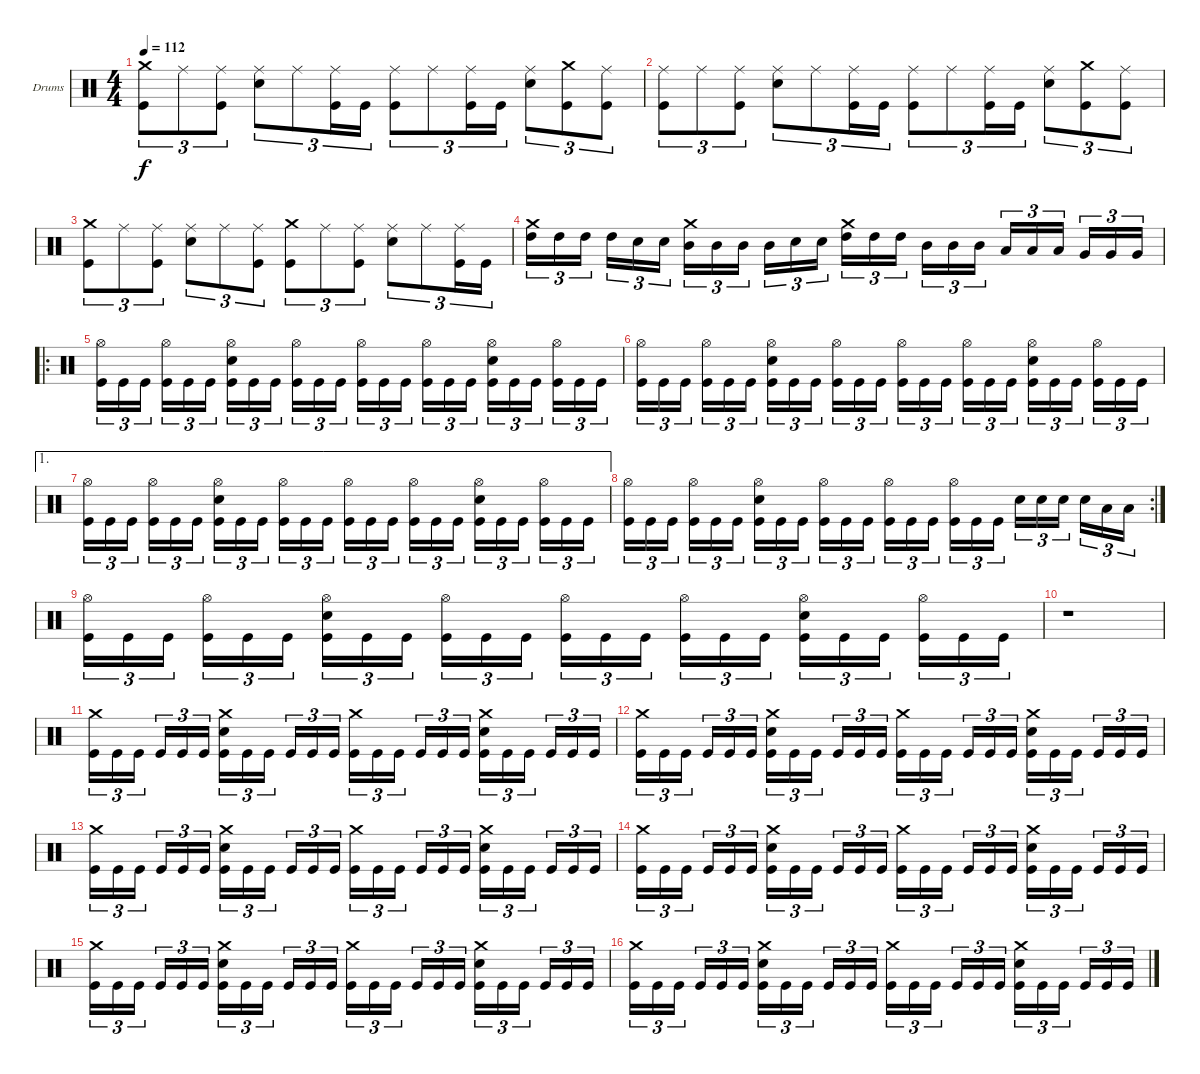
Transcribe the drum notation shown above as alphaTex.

\bracketExtendMode groupsimilarinstruments
\firstSystemTrackNameOrientation horizontal
\otherSystemsTrackNameOrientation horizontal
\track ("Drumkit" "Drums") {instrument percussion}
\staff {score}
\articulation defaults
\ts (4 4)
\tempo 112
\clef neutral
\ks c
("Crash medium (hit)" "Kick (hit)").8{tu (3 2) dy f} "Ride (middle)".8{tu (3 2)} ("Ride (middle)" "Kick (hit)").8{tu (3 2)} ("Ride (middle)" "Snare (hit) 2").8{tu (3 2)} "Ride (middle)".8{tu (3 2)} ("Ride (middle)" "Kick (hit)").16{tu (3 2)} "Kick (hit)".16{tu (3 2)} ("Ride (middle)" "Kick (hit)").8{tu (3 2)} "Ride (middle)".8{tu (3 2)} ("Ride (middle)" "Kick (hit)").16{tu (3 2)} "Kick (hit)".16{tu (3 2)} ("Ride (middle)" "Snare (hit) 2").8{tu (3 2)} ("Crash medium (hit)" "Kick (hit)").8{tu (3 2)} ("Ride (middle)" "Kick (hit)").8{tu (3 2)} |
("Ride (middle)" "Kick (hit)").8{tu (3 2)} "Ride (middle)".8{tu (3 2)} ("Ride (middle)" "Kick (hit)").8{tu (3 2)} ("Ride (middle)" "Snare (hit) 2").8{tu (3 2)} "Ride (middle)".8{tu (3 2)} ("Ride (middle)" "Kick (hit)").16{tu (3 2)} "Kick (hit)".16{tu (3 2)} ("Ride (middle)" "Kick (hit)").8{tu (3 2)} "Ride (middle)".8{tu (3 2)} ("Ride (middle)" "Kick (hit)").16{tu (3 2)} "Kick (hit)".16{tu (3 2)} ("Ride (middle)" "Snare (hit) 2").8{tu (3 2)} ("Crash medium (hit)" "Kick (hit)").8{tu (3 2)} ("Ride (middle)" "Kick (hit)").8{tu (3 2)} |
("Crash medium (hit)" "Kick (hit)").8{tu (3 2)} "Ride (middle)".8{tu (3 2)} ("Ride (middle)" "Kick (hit)").8{tu (3 2)} ("Ride (middle)" "Snare (hit) 2").8{tu (3 2)} "Ride (middle)".8{tu (3 2)} ("Ride (middle)" "Kick (hit)").8{tu (3 2)} ("Crash medium (hit)" "Kick (hit)").8{tu (3 2)} "Ride (middle)".8{tu (3 2)} ("Ride (middle)" "Kick (hit)").8{tu (3 2)} ("Ride (middle)" "Snare (hit) 2").8{tu (3 2)} "Ride (middle)".8{tu (3 2)} ("Ride (middle)" "Kick (hit)").16{tu (3 2)} "Kick (hit)".16{tu (3 2)} |
("High Tom (hit)" "Crash medium (hit)").16{tu (3 2)} "High Tom (hit)".16{tu (3 2)} "High Tom (hit)".16{tu (3 2)} "High Tom (hit)".16{tu (3 2)} "Snare (hit) 2".16{tu (3 2)} "Snare (hit) 2".16{tu (3 2)} ("Mid Tom (hit)" "Crash medium (hit)").16{tu (3 2)} "Mid Tom (hit)".16{tu (3 2)} "Mid Tom (hit)".16{tu (3 2)} "Mid Tom (hit)".16{tu (3 2)} "Snare (hit) 2".16{tu (3 2)} "Snare (hit) 2".16{tu (3 2)} ("High Tom (hit)" "Crash medium (hit)").16{tu (3 2)} "High Tom (hit)".16{tu (3 2)} "High Tom (hit)".16{tu (3 2)} "Mid Tom (hit)".16{tu (3 2)} "Mid Tom (hit)".16{tu (3 2)} "Mid Tom (hit)".16{tu (3 2)} "Low Tom (hit)".16{tu (3 2)} "Low Tom (hit)".16{tu (3 2)} "Low Tom (hit)".16{tu (3 2)} "Very Low Tom (hit)".16{tu (3 2)} "Very Low Tom (hit)".16{tu (3 2)} "Very Low Tom (hit)".16{tu (3 2)} |
\ro
("Hi-Hat (open)" "Kick (hit)").16{tu (3 2)} "Kick (hit)".16{tu (3 2)} "Kick (hit)".16{tu (3 2)} ("Hi-Hat (open)" "Kick (hit)").16{tu (3 2)} "Kick (hit)".16{tu (3 2)} "Kick (hit)".16{tu (3 2)} ("Hi-Hat (open)" "Snare (hit) 2" "Kick (hit)").16{tu (3 2)} "Kick (hit)".16{tu (3 2)} "Kick (hit)".16{tu (3 2)} ("Hi-Hat (open)" "Kick (hit)").16{tu (3 2)} "Kick (hit)".16{tu (3 2)} "Kick (hit)".16{tu (3 2)} ("Hi-Hat (open)" "Kick (hit)").16{tu (3 2)} "Kick (hit)".16{tu (3 2)} "Kick (hit)".16{tu (3 2)} ("Hi-Hat (open)" "Kick (hit)").16{tu (3 2)} "Kick (hit)".16{tu (3 2)} "Kick (hit)".16{tu (3 2)} ("Hi-Hat (open)" "Snare (hit) 2" "Kick (hit)").16{tu (3 2)} "Kick (hit)".16{tu (3 2)} "Kick (hit)".16{tu (3 2)} ("Hi-Hat (open)" "Kick (hit)").16{tu (3 2)} "Kick (hit)".16{tu (3 2)} "Kick (hit)".16{tu (3 2)} |
("Hi-Hat (open)" "Kick (hit)").16{tu (3 2)} "Kick (hit)".16{tu (3 2)} "Kick (hit)".16{tu (3 2)} ("Hi-Hat (open)" "Kick (hit)").16{tu (3 2)} "Kick (hit)".16{tu (3 2)} "Kick (hit)".16{tu (3 2)} ("Hi-Hat (open)" "Snare (hit) 2" "Kick (hit)").16{tu (3 2)} "Kick (hit)".16{tu (3 2)} "Kick (hit)".16{tu (3 2)} ("Hi-Hat (open)" "Kick (hit)").16{tu (3 2)} "Kick (hit)".16{tu (3 2)} "Kick (hit)".16{tu (3 2)} ("Hi-Hat (open)" "Kick (hit)").16{tu (3 2)} "Kick (hit)".16{tu (3 2)} "Kick (hit)".16{tu (3 2)} ("Hi-Hat (open)" "Kick (hit)").16{tu (3 2)} "Kick (hit)".16{tu (3 2)} "Kick (hit)".16{tu (3 2)} ("Hi-Hat (open)" "Snare (hit) 2" "Kick (hit)").16{tu (3 2)} "Kick (hit)".16{tu (3 2)} "Kick (hit)".16{tu (3 2)} ("Hi-Hat (open)" "Kick (hit)").16{tu (3 2)} "Kick (hit)".16{tu (3 2)} "Kick (hit)".16{tu (3 2)} |
\ae 1
("Hi-Hat (open)" "Kick (hit)").16{tu (3 2)} "Kick (hit)".16{tu (3 2)} "Kick (hit)".16{tu (3 2)} ("Hi-Hat (open)" "Kick (hit)").16{tu (3 2)} "Kick (hit)".16{tu (3 2)} "Kick (hit)".16{tu (3 2)} ("Hi-Hat (open)" "Snare (hit) 2" "Kick (hit)").16{tu (3 2)} "Kick (hit)".16{tu (3 2)} "Kick (hit)".16{tu (3 2)} ("Hi-Hat (open)" "Kick (hit)").16{tu (3 2)} "Kick (hit)".16{tu (3 2)} "Kick (hit)".16{tu (3 2)} ("Hi-Hat (open)" "Kick (hit)").16{tu (3 2)} "Kick (hit)".16{tu (3 2)} "Kick (hit)".16{tu (3 2)} ("Hi-Hat (open)" "Kick (hit)").16{tu (3 2)} "Kick (hit)".16{tu (3 2)} "Kick (hit)".16{tu (3 2)} ("Hi-Hat (open)" "Snare (hit) 2" "Kick (hit)").16{tu (3 2)} "Kick (hit)".16{tu (3 2)} "Kick (hit)".16{tu (3 2)} ("Hi-Hat (open)" "Kick (hit)").16{tu (3 2)} "Kick (hit)".16{tu (3 2)} "Kick (hit)".16{tu (3 2)} |
\rc 2
("Hi-Hat (open)" "Kick (hit)").16{tu (3 2)} "Kick (hit)".16{tu (3 2)} "Kick (hit)".16{tu (3 2)} ("Hi-Hat (open)" "Kick (hit)").16{tu (3 2)} "Kick (hit)".16{tu (3 2)} "Kick (hit)".16{tu (3 2)} ("Hi-Hat (open)" "Snare (hit) 2" "Kick (hit)").16{tu (3 2)} "Kick (hit)".16{tu (3 2)} "Kick (hit)".16{tu (3 2)} ("Hi-Hat (open)" "Kick (hit)").16{tu (3 2)} "Kick (hit)".16{tu (3 2)} "Kick (hit)".16{tu (3 2)} ("Hi-Hat (open)" "Kick (hit)").16{tu (3 2)} "Kick (hit)".16{tu (3 2)} "Kick (hit)".16{tu (3 2)} ("Hi-Hat (open)" "Kick (hit)").16{tu (3 2)} "Kick (hit)".16{tu (3 2)} "Kick (hit)".16{tu (3 2)} "Snare (hit) 2".16{tu (3 2)} "Snare (hit) 2".16{tu (3 2)} "Snare (hit) 2".16{tu (3 2)} "Snare (hit) 2".16{tu (3 2)} "Low Tom (hit)".16{tu (3 2)} "Low Tom (hit)".16{tu (3 2)} |
("Hi-Hat (open)" "Kick (hit)").16{tu (3 2)} "Kick (hit)".16{tu (3 2)} "Kick (hit)".16{tu (3 2)} ("Hi-Hat (open)" "Kick (hit)").16{tu (3 2)} "Kick (hit)".16{tu (3 2)} "Kick (hit)".16{tu (3 2)} ("Hi-Hat (open)" "Snare (hit) 2" "Kick (hit)").16{tu (3 2)} "Kick (hit)".16{tu (3 2)} "Kick (hit)".16{tu (3 2)} ("Hi-Hat (open)" "Kick (hit)").16{tu (3 2)} "Kick (hit)".16{tu (3 2)} "Kick (hit)".16{tu (3 2)} ("Hi-Hat (open)" "Kick (hit)").16{tu (3 2)} "Kick (hit)".16{tu (3 2)} "Kick (hit)".16{tu (3 2)} ("Hi-Hat (open)" "Kick (hit)").16{tu (3 2)} "Kick (hit)".16{tu (3 2)} "Kick (hit)".16{tu (3 2)} ("Hi-Hat (open)" "Snare (hit) 2" "Kick (hit)").16{tu (3 2)} "Kick (hit)".16{tu (3 2)} "Kick (hit)".16{tu (3 2)} ("Hi-Hat (open)" "Kick (hit)").16{tu (3 2)} "Kick (hit)".16{tu (3 2)} "Kick (hit)".16{tu (3 2)} |
r.1 |
("Crash medium (hit)" "Kick (hit)").16{tu (3 2)} "Kick (hit)".16{tu (3 2)} "Kick (hit)".16{tu (3 2)} "Kick (hit)".16{tu (3 2)} "Kick (hit)".16{tu (3 2)} "Kick (hit)".16{tu (3 2)} ("Crash medium (hit)" "Snare (hit) 2" "Kick (hit)").16{tu (3 2)} "Kick (hit)".16{tu (3 2)} "Kick (hit)".16{tu (3 2)} "Kick (hit)".16{tu (3 2)} "Kick (hit)".16{tu (3 2)} "Kick (hit)".16{tu (3 2)} ("Crash medium (hit)" "Kick (hit)").16{tu (3 2)} "Kick (hit)".16{tu (3 2)} "Kick (hit)".16{tu (3 2)} "Kick (hit)".16{tu (3 2)} "Kick (hit)".16{tu (3 2)} "Kick (hit)".16{tu (3 2)} ("Crash medium (hit)" "Snare (hit) 2" "Kick (hit)").16{tu (3 2)} "Kick (hit)".16{tu (3 2)} "Kick (hit)".16{tu (3 2)} "Kick (hit)".16{tu (3 2)} "Kick (hit)".16{tu (3 2)} "Kick (hit)".16{tu (3 2)} |
("Crash medium (hit)" "Kick (hit)").16{tu (3 2)} "Kick (hit)".16{tu (3 2)} "Kick (hit)".16{tu (3 2)} "Kick (hit)".16{tu (3 2)} "Kick (hit)".16{tu (3 2)} "Kick (hit)".16{tu (3 2)} ("Crash medium (hit)" "Snare (hit) 2" "Kick (hit)").16{tu (3 2)} "Kick (hit)".16{tu (3 2)} "Kick (hit)".16{tu (3 2)} "Kick (hit)".16{tu (3 2)} "Kick (hit)".16{tu (3 2)} "Kick (hit)".16{tu (3 2)} ("Crash medium (hit)" "Kick (hit)").16{tu (3 2)} "Kick (hit)".16{tu (3 2)} "Kick (hit)".16{tu (3 2)} "Kick (hit)".16{tu (3 2)} "Kick (hit)".16{tu (3 2)} "Kick (hit)".16{tu (3 2)} ("Crash medium (hit)" "Snare (hit) 2" "Kick (hit)").16{tu (3 2)} "Kick (hit)".16{tu (3 2)} "Kick (hit)".16{tu (3 2)} "Kick (hit)".16{tu (3 2)} "Kick (hit)".16{tu (3 2)} "Kick (hit)".16{tu (3 2)} |
("Crash medium (hit)" "Kick (hit)").16{tu (3 2)} "Kick (hit)".16{tu (3 2)} "Kick (hit)".16{tu (3 2)} "Kick (hit)".16{tu (3 2)} "Kick (hit)".16{tu (3 2)} "Kick (hit)".16{tu (3 2)} ("Crash medium (hit)" "Snare (hit) 2" "Kick (hit)").16{tu (3 2)} "Kick (hit)".16{tu (3 2)} "Kick (hit)".16{tu (3 2)} "Kick (hit)".16{tu (3 2)} "Kick (hit)".16{tu (3 2)} "Kick (hit)".16{tu (3 2)} ("Crash medium (hit)" "Kick (hit)").16{tu (3 2)} "Kick (hit)".16{tu (3 2)} "Kick (hit)".16{tu (3 2)} "Kick (hit)".16{tu (3 2)} "Kick (hit)".16{tu (3 2)} "Kick (hit)".16{tu (3 2)} ("Crash medium (hit)" "Snare (hit) 2" "Kick (hit)").16{tu (3 2)} "Kick (hit)".16{tu (3 2)} "Kick (hit)".16{tu (3 2)} "Kick (hit)".16{tu (3 2)} "Kick (hit)".16{tu (3 2)} "Kick (hit)".16{tu (3 2)} |
("Crash medium (hit)" "Kick (hit)").16{tu (3 2)} "Kick (hit)".16{tu (3 2)} "Kick (hit)".16{tu (3 2)} "Kick (hit)".16{tu (3 2)} "Kick (hit)".16{tu (3 2)} "Kick (hit)".16{tu (3 2)} ("Crash medium (hit)" "Snare (hit) 2" "Kick (hit)").16{tu (3 2)} "Kick (hit)".16{tu (3 2)} "Kick (hit)".16{tu (3 2)} "Kick (hit)".16{tu (3 2)} "Kick (hit)".16{tu (3 2)} "Kick (hit)".16{tu (3 2)} ("Crash medium (hit)" "Kick (hit)").16{tu (3 2)} "Kick (hit)".16{tu (3 2)} "Kick (hit)".16{tu (3 2)} "Kick (hit)".16{tu (3 2)} "Kick (hit)".16{tu (3 2)} "Kick (hit)".16{tu (3 2)} ("Crash medium (hit)" "Snare (hit) 2" "Kick (hit)").16{tu (3 2)} "Kick (hit)".16{tu (3 2)} "Kick (hit)".16{tu (3 2)} "Kick (hit)".16{tu (3 2)} "Kick (hit)".16{tu (3 2)} "Kick (hit)".16{tu (3 2)} |
("Crash medium (hit)" "Kick (hit)").16{tu (3 2)} "Kick (hit)".16{tu (3 2)} "Kick (hit)".16{tu (3 2)} "Kick (hit)".16{tu (3 2)} "Kick (hit)".16{tu (3 2)} "Kick (hit)".16{tu (3 2)} ("Crash medium (hit)" "Snare (hit) 2" "Kick (hit)").16{tu (3 2)} "Kick (hit)".16{tu (3 2)} "Kick (hit)".16{tu (3 2)} "Kick (hit)".16{tu (3 2)} "Kick (hit)".16{tu (3 2)} "Kick (hit)".16{tu (3 2)} ("Crash medium (hit)" "Kick (hit)").16{tu (3 2)} "Kick (hit)".16{tu (3 2)} "Kick (hit)".16{tu (3 2)} "Kick (hit)".16{tu (3 2)} "Kick (hit)".16{tu (3 2)} "Kick (hit)".16{tu (3 2)} ("Crash medium (hit)" "Snare (hit) 2" "Kick (hit)").16{tu (3 2)} "Kick (hit)".16{tu (3 2)} "Kick (hit)".16{tu (3 2)} "Kick (hit)".16{tu (3 2)} "Kick (hit)".16{tu (3 2)} "Kick (hit)".16{tu (3 2)} |
("Crash medium (hit)" "Kick (hit)").16{tu (3 2)} "Kick (hit)".16{tu (3 2)} "Kick (hit)".16{tu (3 2)} "Kick (hit)".16{tu (3 2)} "Kick (hit)".16{tu (3 2)} "Kick (hit)".16{tu (3 2)} ("Crash medium (hit)" "Snare (hit) 2" "Kick (hit)").16{tu (3 2)} "Kick (hit)".16{tu (3 2)} "Kick (hit)".16{tu (3 2)} "Kick (hit)".16{tu (3 2)} "Kick (hit)".16{tu (3 2)} "Kick (hit)".16{tu (3 2)} ("Crash medium (hit)" "Kick (hit)").16{tu (3 2)} "Kick (hit)".16{tu (3 2)} "Kick (hit)".16{tu (3 2)} "Kick (hit)".16{tu (3 2)} "Kick (hit)".16{tu (3 2)} "Kick (hit)".16{tu (3 2)} ("Crash medium (hit)" "Snare (hit) 2" "Kick (hit)").16{tu (3 2)} "Kick (hit)".16{tu (3 2)} "Kick (hit)".16{tu (3 2)} "Kick (hit)".16{tu (3 2)} "Kick (hit)".16{tu (3 2)} "Kick (hit)".16{tu (3 2)}
